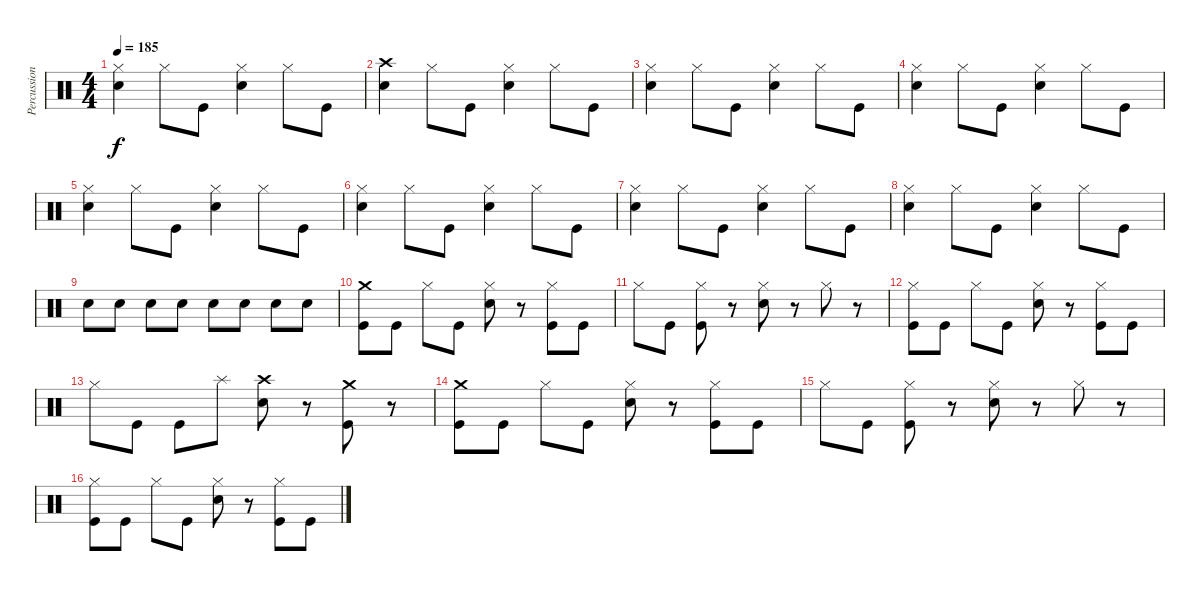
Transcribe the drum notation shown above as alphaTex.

\track ("Percussions" "Percussion") {instrument percussion}
\staff {score}
\articulation defaults
\ts (4 4)
\tempo 185
\clef neutral
\ks c
("Electric Snare (hit)" "Hi-Hat (closed)").4{dy f} "Hi-Hat (closed)".8 "Kick (hit)".8 ("Electric Snare (hit)" "Hi-Hat (closed)").4 "Hi-Hat (closed)".8 "Kick (hit)".8 |
("Electric Snare (hit)" "Crash high (hit)").4 "Hi-Hat (closed)".8 "Kick (hit)".8 ("Electric Snare (hit)" "Hi-Hat (closed)").4 "Hi-Hat (closed)".8 "Kick (hit)".8 |
("Electric Snare (hit)" "Hi-Hat (closed)").4 "Hi-Hat (closed)".8 "Kick (hit)".8 ("Electric Snare (hit)" "Hi-Hat (closed)").4 "Hi-Hat (closed)".8 "Kick (hit)".8 |
("Electric Snare (hit)" "Hi-Hat (closed)").4 "Hi-Hat (closed)".8 "Kick (hit)".8 ("Electric Snare (hit)" "Hi-Hat (closed)").4 "Hi-Hat (closed)".8 "Kick (hit)".8 |
("Electric Snare (hit)" "Hi-Hat (closed)").4 "Hi-Hat (closed)".8 "Kick (hit)".8 ("Electric Snare (hit)" "Hi-Hat (closed)").4 "Hi-Hat (closed)".8 "Kick (hit)".8 |
("Electric Snare (hit)" "Hi-Hat (closed)").4 "Hi-Hat (closed)".8 "Kick (hit)".8 ("Electric Snare (hit)" "Hi-Hat (closed)").4 "Hi-Hat (closed)".8 "Kick (hit)".8 |
("Electric Snare (hit)" "Hi-Hat (closed)").4 "Hi-Hat (closed)".8 "Kick (hit)".8 ("Electric Snare (hit)" "Hi-Hat (closed)").4 "Hi-Hat (closed)".8 "Kick (hit)".8 |
("Electric Snare (hit)" "Hi-Hat (closed)").4 "Hi-Hat (closed)".8 "Kick (hit)".8 ("Electric Snare (hit)" "Hi-Hat (closed)").4 "Hi-Hat (closed)".8 "Kick (hit)".8 |
"Electric Snare (hit)".8 "Electric Snare (hit)".8 "Electric Snare (hit)".8 "Electric Snare (hit)".8 "Electric Snare (hit)".8 "Electric Snare (hit)".8 "Electric Snare (hit)".8 "Electric Snare (hit)".8 |
("Kick (hit)" "Crash medium (hit)").8 "Kick (hit)".8 "Hi-Hat (closed)".8 "Kick (hit)".8 ("Electric Snare (hit)" "Hi-Hat (closed)").8 r.8 ("Kick (hit)" "Hi-Hat (closed)").8 "Kick (hit)".8 |
"Hi-Hat (closed)".8 "Kick (hit)".8 ("Kick (hit)" "Hi-Hat (closed)").8 r.8 ("Electric Snare (hit)" "Hi-Hat (closed)").8 r.8 "Hi-Hat (closed)".8 r.8 |
("Kick (hit)" "Hi-Hat (closed)").8 "Kick (hit)".8 "Hi-Hat (closed)".8 "Kick (hit)".8 ("Electric Snare (hit)" "Hi-Hat (closed)").8 r.8 ("Kick (hit)" "Hi-Hat (closed)").8 "Kick (hit)".8 |
"Hi-Hat (closed)".8 "Kick (hit)".8 "Kick (hit)".8 "Splash (hit)".8 ("Electric Snare (hit)" "Crash high (hit)").8 r.8 ("Kick (hit)" "Crash medium (hit)").8 r.8 |
("Kick (hit)" "Crash medium (hit)").8 "Kick (hit)".8 "Hi-Hat (closed)".8 "Kick (hit)".8 ("Electric Snare (hit)" "Hi-Hat (closed)").8 r.8 ("Kick (hit)" "Hi-Hat (closed)").8 "Kick (hit)".8 |
"Hi-Hat (closed)".8 "Kick (hit)".8 ("Kick (hit)" "Hi-Hat (closed)").8 r.8 ("Electric Snare (hit)" "Hi-Hat (closed)").8 r.8 "Hi-Hat (closed)".8 r.8 |
("Kick (hit)" "Hi-Hat (closed)").8 "Kick (hit)".8 "Hi-Hat (closed)".8 "Kick (hit)".8 ("Electric Snare (hit)" "Hi-Hat (closed)").8 r.8 ("Kick (hit)" "Hi-Hat (closed)").8 "Kick (hit)".8
